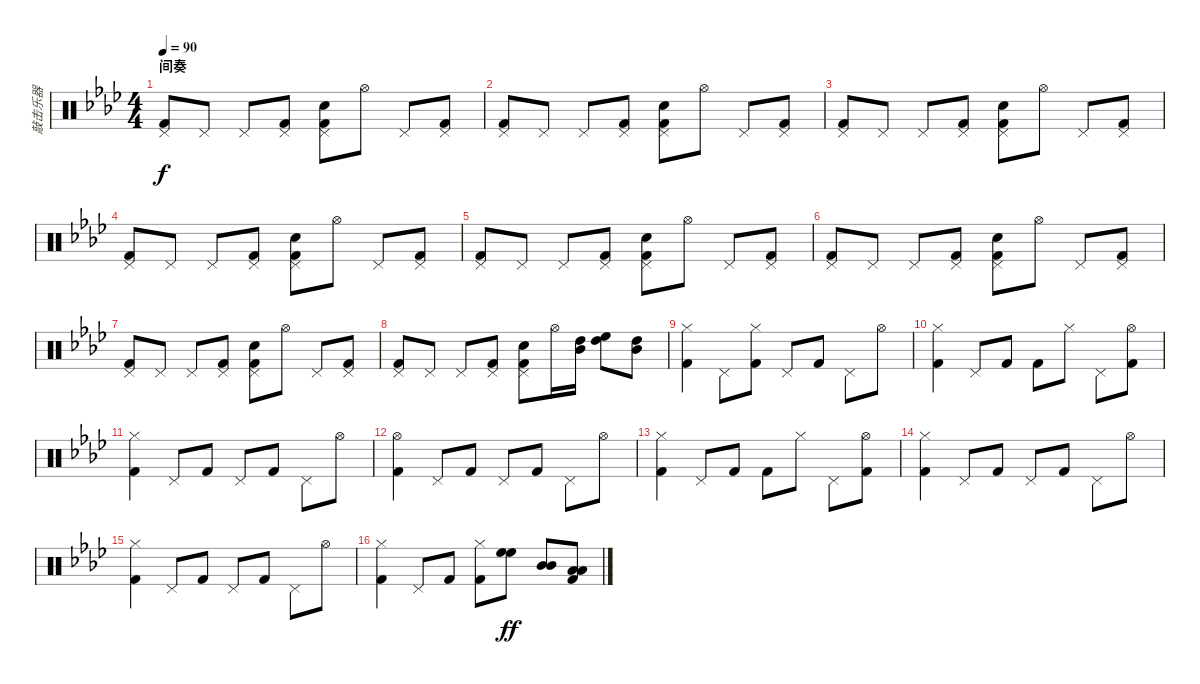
\track ("敲击乐器" "敲击乐器") {instrument percussion}
\staff {score}
\articulation defaults
\ts (4 4)
\section ("" "间奏")
\tempo 90
\clef neutral
\ks ab
("Pedal Hi-Hat (hit)" "Kick (hit) 2").8{dy f} "Pedal Hi-Hat (hit)".8 "Pedal Hi-Hat (hit)".8 ("Pedal Hi-Hat (hit)" "Kick (hit) 2").8 ("Pedal Hi-Hat (hit)" "Snare (hit) 2" "Kick (hit) 2").8 "Hi-Hat (open)".8 "Pedal Hi-Hat (hit)".8 ("Pedal Hi-Hat (hit)" "Kick (hit) 2").8 |
("Pedal Hi-Hat (hit)" "Kick (hit) 2").8 "Pedal Hi-Hat (hit)".8 "Pedal Hi-Hat (hit)".8 ("Pedal Hi-Hat (hit)" "Kick (hit) 2").8 ("Pedal Hi-Hat (hit)" "Snare (hit) 2" "Kick (hit) 2").8 "Hi-Hat (open)".8 "Pedal Hi-Hat (hit)".8 ("Pedal Hi-Hat (hit)" "Kick (hit) 2").8 |
("Pedal Hi-Hat (hit)" "Kick (hit) 2").8 "Pedal Hi-Hat (hit)".8 "Pedal Hi-Hat (hit)".8 ("Pedal Hi-Hat (hit)" "Kick (hit) 2").8 ("Pedal Hi-Hat (hit)" "Snare (hit) 2" "Kick (hit) 2").8 "Hi-Hat (open)".8 "Pedal Hi-Hat (hit)".8 ("Pedal Hi-Hat (hit)" "Kick (hit) 2").8 |
("Pedal Hi-Hat (hit)" "Kick (hit) 2").8 "Pedal Hi-Hat (hit)".8 "Pedal Hi-Hat (hit)".8 ("Pedal Hi-Hat (hit)" "Kick (hit) 2").8 ("Pedal Hi-Hat (hit)" "Snare (hit) 2" "Kick (hit) 2").8 "Hi-Hat (open)".8 "Pedal Hi-Hat (hit)".8 ("Pedal Hi-Hat (hit)" "Kick (hit) 2").8 |
("Pedal Hi-Hat (hit)" "Kick (hit) 2").8 "Pedal Hi-Hat (hit)".8 "Pedal Hi-Hat (hit)".8 ("Pedal Hi-Hat (hit)" "Kick (hit) 2").8 ("Pedal Hi-Hat (hit)" "Snare (hit) 2" "Kick (hit) 2").8 "Hi-Hat (open)".8 "Pedal Hi-Hat (hit)".8 ("Pedal Hi-Hat (hit)" "Kick (hit) 2").8 |
("Pedal Hi-Hat (hit)" "Kick (hit) 2").8 "Pedal Hi-Hat (hit)".8 "Pedal Hi-Hat (hit)".8 ("Pedal Hi-Hat (hit)" "Kick (hit) 2").8 ("Pedal Hi-Hat (hit)" "Snare (hit) 2" "Kick (hit) 2").8 "Hi-Hat (open)".8 "Pedal Hi-Hat (hit)".8 ("Pedal Hi-Hat (hit)" "Kick (hit) 2").8 |
("Pedal Hi-Hat (hit)" "Kick (hit) 2").8 "Pedal Hi-Hat (hit)".8 "Pedal Hi-Hat (hit)".8 ("Pedal Hi-Hat (hit)" "Kick (hit) 2").8 ("Pedal Hi-Hat (hit)" "Snare (hit) 2" "Kick (hit) 2").8 "Hi-Hat (open)".8 "Pedal Hi-Hat (hit)".8 ("Pedal Hi-Hat (hit)" "Kick (hit) 2").8 |
("Pedal Hi-Hat (hit)" "Kick (hit) 2").8 "Pedal Hi-Hat (hit)".8 "Pedal Hi-Hat (hit)".8 ("Pedal Hi-Hat (hit)" "Kick (hit) 2").8 ("Pedal Hi-Hat (hit)" "Snare (hit) 2" "Kick (hit) 2").8 "Hi-Hat (open)".16 ("High Tom (hit)" "Mid Tom (hit)").16 ("High Floor Tom (hit)" "High Tom (hit)").8 ("High Tom (hit)" "Mid Tom (hit)").8 |
("Hi-Hat (closed)" "Kick (hit) 2").4 "Pedal Hi-Hat (hit)".8 ("Hi-Hat (closed)" "Kick (hit) 2").8 "Pedal Hi-Hat (hit)".8 "Kick (hit) 2".8 "Pedal Hi-Hat (hit)".8 "Hi-Hat (open)".8 |
("Hi-Hat (closed)" "Kick (hit) 2").4 "Pedal Hi-Hat (hit)".8 "Kick (hit) 2".8 "Kick (hit) 2".8 "Hi-Hat (closed)".8 "Pedal Hi-Hat (hit)".8 ("Hi-Hat (open)" "Kick (hit) 2").8 |
("Hi-Hat (closed)" "Kick (hit) 2").4 "Pedal Hi-Hat (hit)".8 "Kick (hit) 2".8 "Pedal Hi-Hat (hit)".8 "Kick (hit) 2".8 "Pedal Hi-Hat (hit)".8 "Hi-Hat (open)".8 |
("Hi-Hat (open)" "Kick (hit) 2").4 "Pedal Hi-Hat (hit)".8 "Kick (hit) 2".8 "Pedal Hi-Hat (hit)".8 "Kick (hit) 2".8 "Pedal Hi-Hat (hit)".8 "Hi-Hat (open)".8 |
("Hi-Hat (closed)" "Kick (hit) 2").4 "Pedal Hi-Hat (hit)".8 "Kick (hit) 2".8 "Kick (hit) 2".8 "Hi-Hat (closed)".8 "Pedal Hi-Hat (hit)".8 ("Hi-Hat (open)" "Kick (hit) 2").8 |
("Hi-Hat (closed)" "Kick (hit) 2").4 "Pedal Hi-Hat (hit)".8 "Kick (hit) 2".8 "Pedal Hi-Hat (hit)".8 "Kick (hit) 2".8 "Pedal Hi-Hat (hit)".8 "Hi-Hat (open)".8 |
("Hi-Hat (closed)" "Kick (hit) 2").4 "Pedal Hi-Hat (hit)".8 "Kick (hit) 2".8 "Pedal Hi-Hat (hit)".8 "Kick (hit) 2".8 "Pedal Hi-Hat (hit)".8 "Hi-Hat (open)".8 |
("Hi-Hat (closed)" "Kick (hit) 2").4 "Pedal Hi-Hat (hit)".8 "Kick (hit) 2".8 ("Hi-Hat (closed)" "Kick (hit) 2").8 ("High Floor Tom (hit)" "High Floor Tom (hit)").8{dy ff} ("Mid Tom (hit)" "Mid Tom (hit)").8 ("Low Tom (hit)" "Low Tom (hit)" "Kick (hit) 2").8
